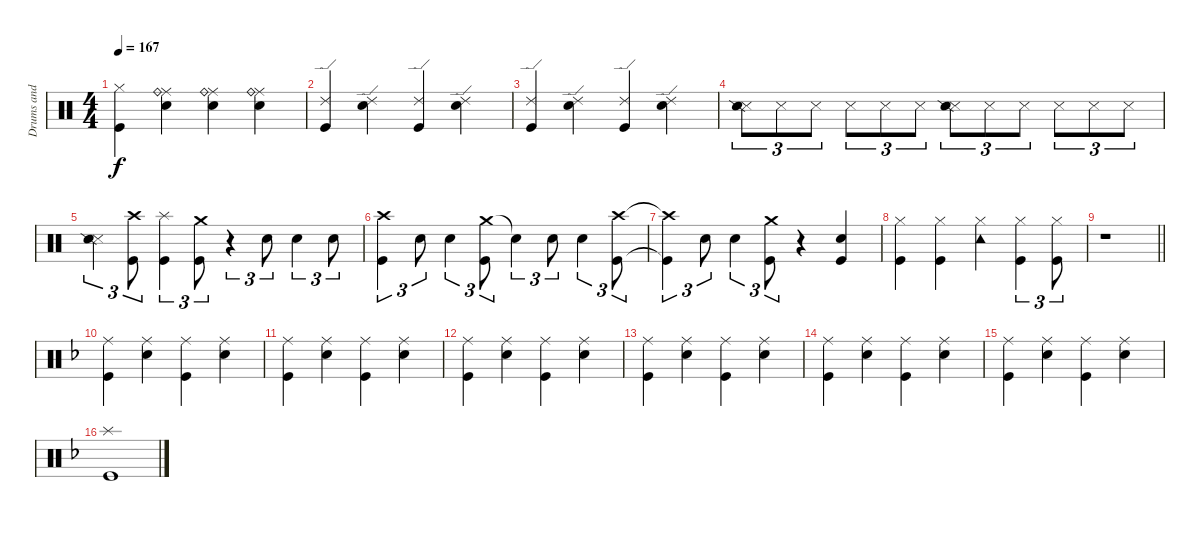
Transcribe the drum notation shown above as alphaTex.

\track ("Drums and percussion" "Drums and ") {instrument percussion}
\staff {score}
\articulation defaults
\ts (4 4)
\tempo 167
\clef neutral
\ks c
("Hi-Hat (closed)" "Kick (hit)").4{dy f} ("Ride (middle)" "Ride (bell)" "Snare (hit) 2").4 ("Ride (middle)" "Ride (bell)" "Snare (hit) 2").4 ("Ride (middle)" "Ride (bell)" "Snare (hit) 2").4 |
("Ride (edge) 2" "Kick (hit)").4 ("Ride (edge) 2" "Snare (hit) 2").4 ("Ride (edge) 2" "Kick (hit)").4 ("Ride (edge) 2" "Snare (hit) 2").4 |
("Ride (edge) 2" "Kick (hit)").4 ("Ride (edge) 2" "Snare (hit) 2").4 ("Ride (edge) 2" "Kick (hit)").4 ("Ride (edge) 2" "Snare (hit) 2").4 |
("Snare (side stick) 3" "Snare (side stick) 2").8{tu (3 2)} "Snare (side stick) 3".8{tu (3 2)} "Snare (side stick) 3".8{tu (3 2)} "Snare (side stick) 3".8{tu (3 2)} "Snare (side stick) 3".8{tu (3 2)} "Snare (side stick) 3".8{tu (3 2)} ("Snare (side stick) 3" "Snare (side stick) 2").8{tu (3 2)} "Snare (side stick) 3".8{tu (3 2)} "Snare (side stick) 3".8{tu (3 2)} "Snare (side stick) 3".8{tu (3 2)} "Snare (side stick) 3".8{tu (3 2)} "Snare (side stick) 3".8{tu (3 2)} |
("Snare (side stick) 3" "Snare (side stick) 2").4{tu (3 2)} ("Crash high (hit)" "Kick (hit)").8{tu (3 2)} ("Splash (hit)" "Kick (hit)").4{tu (3 2)} ("Crash medium (hit)" "Kick (hit)").8{tu (3 2)} r.4{tu (3 2)} "Electric Snare (hit)".8{tu (3 2)} "Electric Snare (hit)".4{tu (3 2)} "Electric Snare (hit)".8{tu (3 2)} |
("Crash high (hit)" "Kick (hit)").4{tu (3 2)} "Electric Snare (hit)".8{tu (3 2)} "Electric Snare (hit)".4{tu (3 2)} ("Crash medium (hit)" "Kick (hit)").8{tu (3 2)} "Snare (hit)"{t}.4{tu (3 2)} "Electric Snare (hit)".8{tu (3 2)} "Electric Snare (hit)".4{tu (3 2)} ("Crash high (hit)" "Kick (hit)").8{tu (3 2)} |
("Crash high (hit)"{t} "Kick (hit)"{t}).4{tu (3 2)} "Electric Snare (hit)".8{tu (3 2)} "Electric Snare (hit)".4{tu (3 2)} ("Crash medium (hit)" "Kick (hit)").8{tu (3 2)} r.4 ("Electric Snare (hit)" "Kick (hit)").4 |
("Hi-Hat (closed)" "Kick (hit)").4 ("Hi-Hat (closed)" "Kick (hit)").4 ("Hi-Hat (closed)" "Tambourine (hit)").4 ("Hi-Hat (closed)" "Kick (hit)").4{tu (3 2)} ("Hi-Hat (closed)" "Kick (hit)").8{tu (3 2)} |
\barLineRight lightlight
r.1 |
\ks f
("Ride (middle)" "Kick (hit)").4 ("Ride (middle)" "Snare (hit) 2").4 ("Ride (middle)" "Kick (hit)").4 ("Ride (middle)" "Snare (hit) 2").4 |
("Ride (middle)" "Kick (hit)").4 ("Ride (middle)" "Snare (hit) 2").4 ("Ride (middle)" "Kick (hit)").4 ("Ride (middle)" "Snare (hit) 2").4 |
("Ride (middle)" "Kick (hit)").4 ("Ride (middle)" "Snare (hit) 2").4 ("Ride (middle)" "Kick (hit)").4 ("Ride (middle)" "Snare (hit) 2").4 |
("Ride (middle)" "Kick (hit)").4 ("Ride (middle)" "Snare (hit) 2").4 ("Ride (middle)" "Kick (hit)").4 ("Ride (middle)" "Snare (hit) 2").4 |
("Ride (middle)" "Kick (hit)").4 ("Ride (middle)" "Snare (hit) 2").4 ("Ride (middle)" "Kick (hit)").4 ("Ride (middle)" "Snare (hit) 2").4 |
("Ride (middle)" "Kick (hit)").4 ("Ride (middle)" "Snare (hit) 2").4 ("Ride (middle)" "Kick (hit)").4 ("Ride (middle)" "Snare (hit) 2").4 |
("Splash (hit)" "Kick (hit)").1
